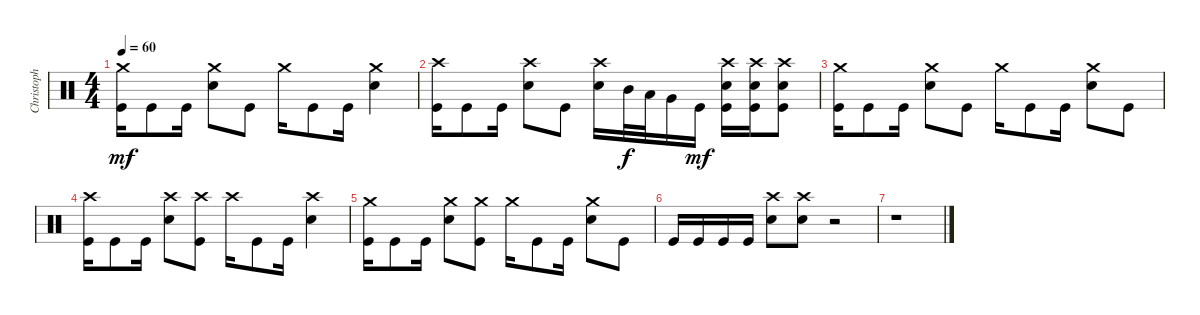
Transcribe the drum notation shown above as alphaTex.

\track ("Christoph Schneider" "Christoph ") {instrument percussion}
\staff {score}
\articulation defaults
\ts (4 4)
\tempo 60
\clef neutral
\ks c
("Crash medium (hit)" "Kick (hit)").16{dy mf} "Kick (hit)".8 "Kick (hit)".16 ("Crash medium (hit)" "Snare (hit) 2").8 "Kick (hit)".8 "Crash medium (hit)".16 "Kick (hit)".8 "Kick (hit)".16 ("Crash medium (hit)" "Snare (hit) 2").4 |
("Crash high (hit)" "Kick (hit)").16 "Kick (hit)".8 "Kick (hit)".16 ("Crash high (hit)" "Snare (hit) 2").8 "Kick (hit)".8 ("Crash high (hit)" "Snare (hit) 2").16 "Mid Tom (hit)".32{dy f} "Low Tom (hit)".32 "Very Low Tom (hit)".16 "Kick (hit)".16{dy mf} ("Crash high (hit)" "Snare (hit) 2" "Kick (hit)").16 ("Crash high (hit)" "Snare (hit) 2" "Kick (hit)").16 ("Crash high (hit)" "Snare (hit) 2" "Kick (hit)").8 |
("Crash medium (hit)" "Kick (hit)").16 "Kick (hit)".8 "Kick (hit)".16 ("Crash medium (hit)" "Snare (hit) 2").8 "Kick (hit)".8 "Crash medium (hit)".16 "Kick (hit)".8 "Kick (hit)".16 ("Crash medium (hit)" "Snare (hit) 2").8 "Kick (hit)".8 |
("Crash high (hit)" "Kick (hit)").16 "Kick (hit)".8 "Kick (hit)".16 ("Crash high (hit)" "Snare (hit) 2").8 ("Crash high (hit)" "Kick (hit)").8 "Crash high (hit)".16 "Kick (hit)".8 "Kick (hit)".16 ("Crash high (hit)" "Snare (hit) 2").4 |
("Crash medium (hit)" "Kick (hit)").16 "Kick (hit)".8 "Kick (hit)".16 ("Crash medium (hit)" "Snare (hit) 2").8 ("Crash medium (hit)" "Kick (hit)").8 "Crash medium (hit)".16 "Kick (hit)".8 "Kick (hit)".16 ("Crash medium (hit)" "Snare (hit) 2").8 "Kick (hit)".8 |
"Kick (hit)".16 "Kick (hit)".16 "Kick (hit)".16 "Kick (hit)".16 ("Crash high (hit)" "Snare (hit) 2").8 ("Crash high (hit)" "Snare (hit) 2").8 r.2 |
r.1
